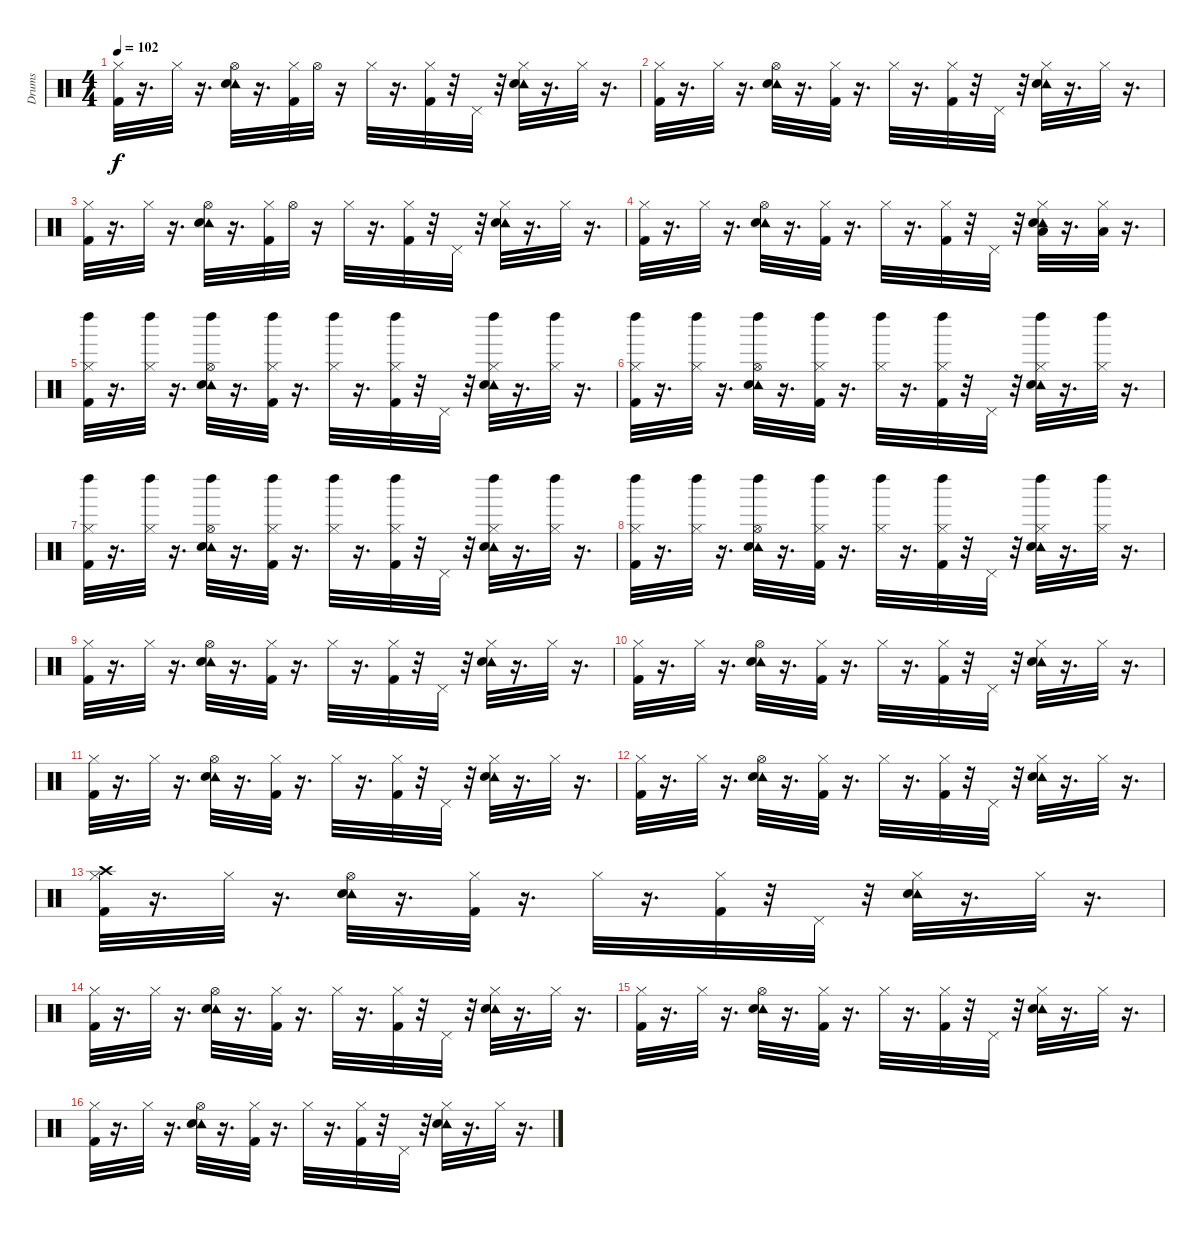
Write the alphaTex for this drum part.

\track ("Drums" "Drums") {instrument percussion}
\staff {score}
\articulation defaults
\ts (4 4)
\tempo 102
\clef neutral
\ks c
("Hi-Hat (closed)" "Kick (hit) 2").32{dy f} r.16{d} "Hi-Hat (closed)".32 r.16{d} ("Tambourine (hit)" "Hi-Hat (open)" "Electric Snare (hit)").32 r.16{d} ("Hi-Hat (closed)" "Kick (hit) 2").32 "Hi-Hat (open)".32 r.16 "Hi-Hat (closed)".32 r.16{d} ("Hi-Hat (closed)" "Kick (hit) 2").32 r.32 "Pedal Hi-Hat (hit)".32 r.32 ("Tambourine (hit)" "Hi-Hat (closed)" "Electric Snare (hit)").32 r.16{d} "Hi-Hat (closed)".32 r.16{d} |
("Hi-Hat (closed)" "Kick (hit) 2").32 r.16{d} "Hi-Hat (closed)".32 r.16{d} ("Tambourine (hit)" "Hi-Hat (open)" "Electric Snare (hit)").32 r.16{d} ("Hi-Hat (closed)" "Kick (hit) 2").32 r.16{d} "Hi-Hat (closed)".32 r.16{d} ("Hi-Hat (closed)" "Kick (hit) 2").32 r.32 "Pedal Hi-Hat (hit)".32 r.32 ("Tambourine (hit)" "Hi-Hat (closed)" "Electric Snare (hit)").32 r.16{d} "Hi-Hat (closed)".32 r.16{d} |
("Hi-Hat (closed)" "Kick (hit) 2").32 r.16{d} "Hi-Hat (closed)".32 r.16{d} ("Tambourine (hit)" "Hi-Hat (open)" "Electric Snare (hit)").32 r.16{d} ("Hi-Hat (closed)" "Kick (hit) 2").32 "Hi-Hat (open)".32 r.16 "Hi-Hat (closed)".32 r.16{d} ("Hi-Hat (closed)" "Kick (hit) 2").32 r.32 "Pedal Hi-Hat (hit)".32 r.32 ("Tambourine (hit)" "Hi-Hat (closed)" "Electric Snare (hit)").32 r.16{d} "Hi-Hat (closed)".32 r.16{d} |
("Hi-Hat (closed)" "Kick (hit) 2").32 r.16{d} "Hi-Hat (closed)".32 r.16{d} ("Tambourine (hit)" "Hi-Hat (open)" "Electric Snare (hit)").32 r.16{d} ("Hi-Hat (closed)" "Kick (hit) 2").32 r.16{d} "Hi-Hat (closed)".32 r.16{d} ("Hi-Hat (closed)" "Kick (hit) 2").32 r.32 "Pedal Hi-Hat (hit)".32 r.32 ("Low Floor Tom (hit)" "Tambourine (hit)" "Hi-Hat (closed)" "Electric Snare (hit)").32 r.16{d} ("Low Floor Tom (hit)" "Hi-Hat (closed)").32 r.16{d} |
("Left Maraca (hit)" "Hi-Hat (closed)" "Kick (hit) 2").32 r.16{d} ("Left Maraca (hit)" "Hi-Hat (closed)").32 r.16{d} ("Left Maraca (hit)" "Tambourine (hit)" "Hi-Hat (open)" "Electric Snare (hit)").32 r.16{d} ("Left Maraca (hit)" "Hi-Hat (closed)" "Kick (hit) 2").32 r.16{d} ("Left Maraca (hit)" "Hi-Hat (closed)").32 r.16{d} ("Left Maraca (hit)" "Hi-Hat (closed)" "Kick (hit) 2").32 r.32 "Pedal Hi-Hat (hit)".32 r.32 ("Left Maraca (hit)" "Tambourine (hit)" "Hi-Hat (closed)" "Electric Snare (hit)").32 r.16{d} ("Left Maraca (hit)" "Hi-Hat (closed)").32 r.16{d} |
("Left Maraca (hit)" "Hi-Hat (closed)" "Kick (hit) 2").32 r.16{d} ("Left Maraca (hit)" "Hi-Hat (closed)").32 r.16{d} ("Left Maraca (hit)" "Tambourine (hit)" "Hi-Hat (open)" "Electric Snare (hit)").32 r.16{d} ("Left Maraca (hit)" "Hi-Hat (closed)" "Kick (hit) 2").32 r.16{d} ("Left Maraca (hit)" "Hi-Hat (closed)").32 r.16{d} ("Left Maraca (hit)" "Hi-Hat (closed)" "Kick (hit) 2").32 r.32 "Pedal Hi-Hat (hit)".32 r.32 ("Left Maraca (hit)" "Tambourine (hit)" "Hi-Hat (closed)" "Electric Snare (hit)").32 r.16{d} ("Left Maraca (hit)" "Hi-Hat (closed)").32 r.16{d} |
("Left Maraca (hit)" "Hi-Hat (closed)" "Kick (hit) 2").32 r.16{d} ("Left Maraca (hit)" "Hi-Hat (closed)").32 r.16{d} ("Left Maraca (hit)" "Tambourine (hit)" "Hi-Hat (open)" "Electric Snare (hit)").32 r.16{d} ("Left Maraca (hit)" "Hi-Hat (closed)" "Kick (hit) 2").32 r.16{d} ("Left Maraca (hit)" "Hi-Hat (closed)").32 r.16{d} ("Left Maraca (hit)" "Hi-Hat (closed)" "Kick (hit) 2").32 r.32 "Pedal Hi-Hat (hit)".32 r.32 ("Left Maraca (hit)" "Tambourine (hit)" "Hi-Hat (closed)" "Electric Snare (hit)").32 r.16{d} ("Left Maraca (hit)" "Hi-Hat (closed)").32 r.16{d} |
("Left Maraca (hit)" "Hi-Hat (closed)" "Kick (hit) 2").32 r.16{d} ("Left Maraca (hit)" "Hi-Hat (closed)").32 r.16{d} ("Left Maraca (hit)" "Tambourine (hit)" "Hi-Hat (open)" "Electric Snare (hit)").32 r.16{d} ("Left Maraca (hit)" "Hi-Hat (closed)" "Kick (hit) 2").32 r.16{d} ("Left Maraca (hit)" "Hi-Hat (closed)").32 r.16{d} ("Left Maraca (hit)" "Hi-Hat (closed)" "Kick (hit) 2").32 r.32 "Pedal Hi-Hat (hit)".32 r.32 ("Left Maraca (hit)" "Tambourine (hit)" "Hi-Hat (closed)" "Electric Snare (hit)").32 r.16{d} ("Left Maraca (hit)" "Hi-Hat (closed)").32 r.16{d} |
("Hi-Hat (closed)" "Kick (hit) 2").32 r.16{d} "Hi-Hat (closed)".32 r.16{d} ("Tambourine (hit)" "Hi-Hat (open)" "Electric Snare (hit)").32 r.16{d} ("Hi-Hat (closed)" "Kick (hit) 2").32 r.16{d} "Hi-Hat (closed)".32 r.16{d} ("Hi-Hat (closed)" "Kick (hit) 2").32 r.32 "Pedal Hi-Hat (hit)".32 r.32 ("Tambourine (hit)" "Hi-Hat (closed)" "Electric Snare (hit)").32 r.16{d} "Hi-Hat (closed)".32 r.16{d} |
("Hi-Hat (closed)" "Kick (hit) 2").32 r.16{d} "Hi-Hat (closed)".32 r.16{d} ("Tambourine (hit)" "Hi-Hat (open)" "Electric Snare (hit)").32 r.16{d} ("Hi-Hat (closed)" "Kick (hit) 2").32 r.16{d} "Hi-Hat (closed)".32 r.16{d} ("Hi-Hat (closed)" "Kick (hit) 2").32 r.32 "Pedal Hi-Hat (hit)".32 r.32 ("Tambourine (hit)" "Hi-Hat (closed)" "Electric Snare (hit)").32 r.16{d} "Hi-Hat (closed)".32 r.16{d} |
("Hi-Hat (closed)" "Kick (hit) 2").32 r.16{d} "Hi-Hat (closed)".32 r.16{d} ("Tambourine (hit)" "Hi-Hat (open)" "Electric Snare (hit)").32 r.16{d} ("Hi-Hat (closed)" "Kick (hit) 2").32 r.16{d} "Hi-Hat (closed)".32 r.16{d} ("Hi-Hat (closed)" "Kick (hit) 2").32 r.32 "Pedal Hi-Hat (hit)".32 r.32 ("Tambourine (hit)" "Hi-Hat (closed)" "Electric Snare (hit)").32 r.16{d} "Hi-Hat (closed)".32 r.16{d} |
("Hi-Hat (closed)" "Kick (hit) 2").32 r.16{d} "Hi-Hat (closed)".32 r.16{d} ("Tambourine (hit)" "Hi-Hat (open)" "Electric Snare (hit)").32 r.16{d} ("Hi-Hat (closed)" "Kick (hit) 2").32 r.16{d} "Hi-Hat (closed)".32 r.16{d} ("Hi-Hat (closed)" "Kick (hit) 2").32 r.32 "Pedal Hi-Hat (hit)".32 r.32 ("Tambourine (hit)" "Hi-Hat (closed)" "Electric Snare (hit)").32 r.16{d} "Hi-Hat (closed)".32 r.16{d} |
("Crash high (hit)" "Hi-Hat (closed)" "Kick (hit) 2").32 r.16{d} "Hi-Hat (closed)".32 r.16{d} ("Tambourine (hit)" "Hi-Hat (open)" "Electric Snare (hit)").32 r.16{d} ("Hi-Hat (closed)" "Kick (hit) 2").32 r.16{d} "Hi-Hat (closed)".32 r.16{d} ("Hi-Hat (closed)" "Kick (hit) 2").32 r.32 "Pedal Hi-Hat (hit)".32 r.32 ("Tambourine (hit)" "Hi-Hat (closed)" "Electric Snare (hit)").32 r.16{d} "Hi-Hat (closed)".32 r.16{d} |
("Hi-Hat (closed)" "Kick (hit) 2").32 r.16{d} "Hi-Hat (closed)".32 r.16{d} ("Tambourine (hit)" "Hi-Hat (open)" "Electric Snare (hit)").32 r.16{d} ("Hi-Hat (closed)" "Kick (hit) 2").32 r.16{d} "Hi-Hat (closed)".32 r.16{d} ("Hi-Hat (closed)" "Kick (hit) 2").32 r.32 "Pedal Hi-Hat (hit)".32 r.32 ("Tambourine (hit)" "Hi-Hat (closed)" "Electric Snare (hit)").32 r.16{d} "Hi-Hat (closed)".32 r.16{d} |
("Hi-Hat (closed)" "Kick (hit) 2").32 r.16{d} "Hi-Hat (closed)".32 r.16{d} ("Tambourine (hit)" "Hi-Hat (open)" "Electric Snare (hit)").32 r.16{d} ("Hi-Hat (closed)" "Kick (hit) 2").32 r.16{d} "Hi-Hat (closed)".32 r.16{d} ("Hi-Hat (closed)" "Kick (hit) 2").32 r.32 "Pedal Hi-Hat (hit)".32 r.32 ("Tambourine (hit)" "Hi-Hat (closed)" "Electric Snare (hit)").32 r.16{d} "Hi-Hat (closed)".32 r.16{d} |
("Hi-Hat (closed)" "Kick (hit) 2").32 r.16{d} "Hi-Hat (closed)".32 r.16{d} ("Tambourine (hit)" "Hi-Hat (open)" "Electric Snare (hit)").32 r.16{d} ("Hi-Hat (closed)" "Kick (hit) 2").32 r.16{d} "Hi-Hat (closed)".32 r.16{d} ("Hi-Hat (closed)" "Kick (hit) 2").32 r.32 "Pedal Hi-Hat (hit)".32 r.32 ("Tambourine (hit)" "Hi-Hat (closed)" "Electric Snare (hit)").32 r.16{d} "Hi-Hat (closed)".32 r.16{d}
